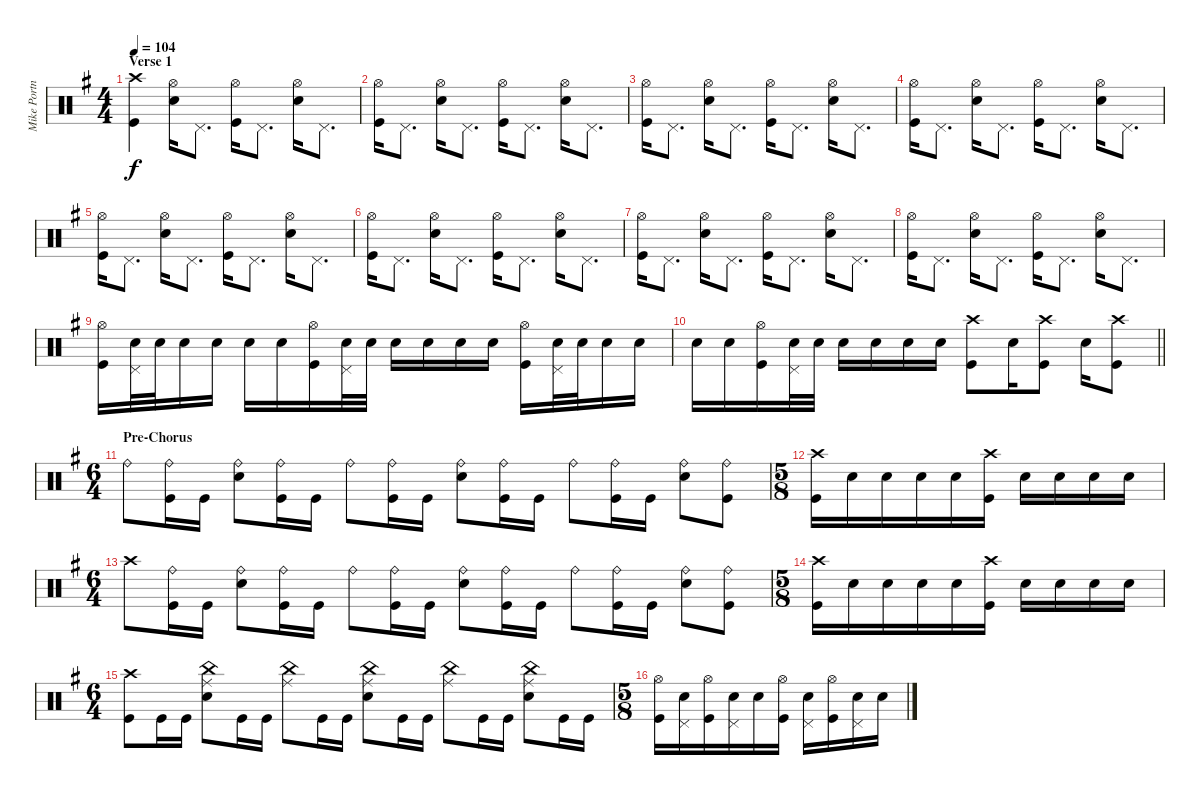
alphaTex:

\track ("Mike Portnoy" "Mike Portn") {instrument percussion}
\staff {score}
\articulation defaults
\ts (4 4)
\section ("" "Verse 1")
\tempo 104
\clef neutral
\ks eminor
("Crash high (hit)" "Kick (hit)").4{dy f} ("Hi-Hat (open)" "Snare (hit) 2").16 "Pedal Hi-Hat (hit)".8{d} ("Hi-Hat (open)" "Kick (hit)").16 "Pedal Hi-Hat (hit)".8{d} ("Hi-Hat (open)" "Snare (hit) 2").16 "Pedal Hi-Hat (hit)".8{d} |
("Hi-Hat (open)" "Kick (hit)").16 "Pedal Hi-Hat (hit)".8{d} ("Hi-Hat (open)" "Snare (hit) 2").16 "Pedal Hi-Hat (hit)".8{d} ("Hi-Hat (open)" "Kick (hit)").16 "Pedal Hi-Hat (hit)".8{d} ("Hi-Hat (open)" "Snare (hit) 2").16 "Pedal Hi-Hat (hit)".8{d} |
("Hi-Hat (open)" "Kick (hit)").16 "Pedal Hi-Hat (hit)".8{d} ("Hi-Hat (open)" "Snare (hit) 2").16 "Pedal Hi-Hat (hit)".8{d} ("Hi-Hat (open)" "Kick (hit)").16 "Pedal Hi-Hat (hit)".8{d} ("Hi-Hat (open)" "Snare (hit) 2").16 "Pedal Hi-Hat (hit)".8{d} |
("Hi-Hat (open)" "Kick (hit)").16 "Pedal Hi-Hat (hit)".8{d} ("Hi-Hat (open)" "Snare (hit) 2").16 "Pedal Hi-Hat (hit)".8{d} ("Hi-Hat (open)" "Kick (hit)").16 "Pedal Hi-Hat (hit)".8{d} ("Hi-Hat (open)" "Snare (hit) 2").16 "Pedal Hi-Hat (hit)".8{d} |
("Hi-Hat (open)" "Kick (hit)").16 "Pedal Hi-Hat (hit)".8{d} ("Hi-Hat (open)" "Snare (hit) 2").16 "Pedal Hi-Hat (hit)".8{d} ("Hi-Hat (open)" "Kick (hit)").16 "Pedal Hi-Hat (hit)".8{d} ("Hi-Hat (open)" "Snare (hit) 2").16 "Pedal Hi-Hat (hit)".8{d} |
("Hi-Hat (open)" "Kick (hit)").16 "Pedal Hi-Hat (hit)".8{d} ("Hi-Hat (open)" "Snare (hit) 2").16 "Pedal Hi-Hat (hit)".8{d} ("Hi-Hat (open)" "Kick (hit)").16 "Pedal Hi-Hat (hit)".8{d} ("Hi-Hat (open)" "Snare (hit) 2").16 "Pedal Hi-Hat (hit)".8{d} |
("Hi-Hat (open)" "Kick (hit)").16 "Pedal Hi-Hat (hit)".8{d} ("Hi-Hat (open)" "Snare (hit) 2").16 "Pedal Hi-Hat (hit)".8{d} ("Hi-Hat (open)" "Kick (hit)").16 "Pedal Hi-Hat (hit)".8{d} ("Hi-Hat (open)" "Snare (hit) 2").16 "Pedal Hi-Hat (hit)".8{d} |
("Hi-Hat (open)" "Kick (hit)").16 "Pedal Hi-Hat (hit)".8{d} ("Hi-Hat (open)" "Snare (hit) 2").16 "Pedal Hi-Hat (hit)".8{d} ("Hi-Hat (open)" "Kick (hit)").16 "Pedal Hi-Hat (hit)".8{d} ("Hi-Hat (open)" "Snare (hit) 2").16 "Pedal Hi-Hat (hit)".8{d} |
("Kick (hit)" "Hi-Hat (open)").16 ("Snare (hit) 2" "Pedal Hi-Hat (hit)").32 "Snare (hit) 2".32 "Snare (hit) 2".16 "Snare (hit) 2".16 "Snare (hit) 2".16 "Snare (hit) 2".16 ("Hi-Hat (open)" "Kick (hit)").16 ("Snare (hit) 2" "Pedal Hi-Hat (hit)").32 "Snare (hit) 2".32 "Snare (hit) 2".16 "Snare (hit) 2".16 "Snare (hit) 2".16 "Snare (hit) 2".16 ("Kick (hit)" "Hi-Hat (open)").16 ("Snare (hit) 2" "Pedal Hi-Hat (hit)").32 "Snare (hit) 2".32 "Snare (hit) 2".16 "Snare (hit) 2".16 |
\barLineRight lightlight "Snare (hit) 2".16 "Snare (hit) 2".16
("Hi-Hat (open)" "Kick (hit)").16 ("Snare (hit) 2" "Pedal Hi-Hat (hit)").32 "Snare (hit) 2".32 "Snare (hit) 2".16 "Snare (hit) 2".16 "Snare (hit) 2".16 "Snare (hit) 2".16 ("Kick (hit)" "Crash high (hit)").8 "Electric Snare (hit)".16 ("Kick (hit)" "Crash high (hit)").8 "Electric Snare (hit)".16 ("Kick (hit)" "Crash high (hit)").8 |
\ts (6 4)
\section ("" "Pre-Chorus")
"Ride (bell)".8 ("Ride (bell)" "Kick (hit)").16 "Kick (hit)".16 ("Ride (bell)" "Snare (hit) 2").8 ("Ride (bell)" "Kick (hit)").16 "Kick (hit)".16 "Ride (bell)".8 ("Ride (bell)" "Kick (hit)").16 "Kick (hit)".16 ("Ride (bell)" "Snare (hit) 2").8 ("Ride (bell)" "Kick (hit)").16 "Kick (hit)".16 "Ride (bell)".8 ("Ride (bell)" "Kick (hit)").16 "Kick (hit)".16 ("Ride (bell)" "Snare (hit) 2").8 ("Ride (bell)" "Kick (hit)").8 |
\ts (5 8)
("Kick (hit)" "Crash high (hit)").16 "Snare (hit) 2".16 "Snare (hit) 2".16 "Snare (hit) 2".16 "Snare (hit) 2".16 ("Kick (hit)" "Crash high (hit)").16 "Snare (hit) 2".16 "Snare (hit) 2".16 "Snare (hit) 2".16 "Snare (hit) 2".16 |
\ts (6 4)
"Crash high (hit)".8 ("Ride (bell)" "Kick (hit)").16 "Kick (hit)".16 ("Ride (bell)" "Snare (hit) 2").8 ("Ride (bell)" "Kick (hit)").16 "Kick (hit)".16 "Ride (bell)".8 ("Ride (bell)" "Kick (hit)").16 "Kick (hit)".16 ("Ride (bell)" "Snare (hit) 2").8 ("Ride (bell)" "Kick (hit)").16 "Kick (hit)".16 "Ride (bell)".8 ("Ride (bell)" "Kick (hit)").16 "Kick (hit)".16 ("Ride (bell)" "Snare (hit) 2").8 ("Ride (bell)" "Kick (hit)").8 |
\ts (5 8)
("Kick (hit)" "Crash high (hit)").16 "Snare (hit) 2".16 "Snare (hit) 2".16 "Snare (hit) 2".16 "Snare (hit) 2".16 ("Kick (hit)" "Crash high (hit)").16 "Snare (hit) 2".16 "Snare (hit) 2".16 "Snare (hit) 2".16 "Snare (hit) 2".16 |
\ts (6 4)
("Crash high (hit)" "Kick (hit)").8 "Kick (hit)".16 "Kick (hit)".16 ("Ride (middle)" "China (hit)" "Snare (hit) 2").8 "Kick (hit)".16 "Kick (hit)".16 ("Ride (middle)" "China (hit)").8 "Kick (hit)".16 "Kick (hit)".16 ("Ride (middle)" "China (hit)" "Snare (hit) 2").8 "Kick (hit)".16 "Kick (hit)".16 ("Ride (middle)" "China (hit)").8 "Kick (hit)".16 "Kick (hit)".16 ("Ride (middle)" "China (hit)" "Snare (hit) 2").8 "Kick (hit)".16 "Kick (hit)".16 |
\ts (5 8)
("Kick (hit)" "Hi-Hat (open)").16 ("Electric Snare (hit)" "Pedal Hi-Hat (hit)").16 ("Kick (hit)" "Hi-Hat (open)").16 ("Electric Snare (hit)" "Pedal Hi-Hat (hit)").16 "Electric Snare (hit)".16 ("Kick (hit)" "Hi-Hat (open)").16 ("Electric Snare (hit)" "Pedal Hi-Hat (hit)").16 ("Kick (hit)" "Hi-Hat (open)").16 ("Electric Snare (hit)" "Pedal Hi-Hat (hit)").16 "Electric Snare (hit)".16
